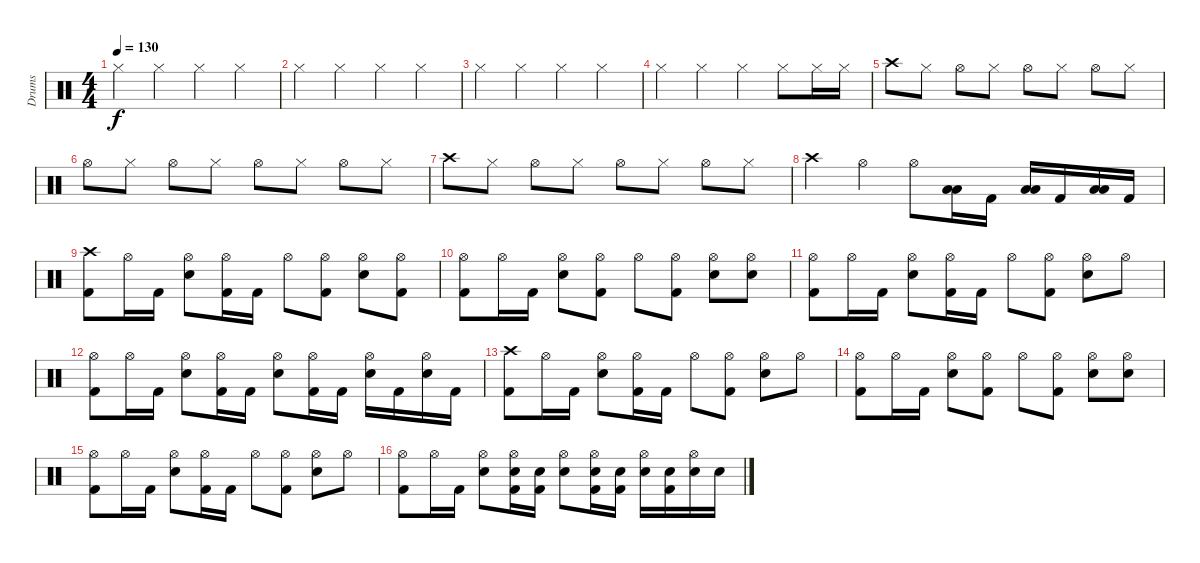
\track ("Drums" "Drums") {instrument percussion}
\staff {score}
\articulation defaults
\ts (4 4)
\tempo 130
\clef neutral
\ks c "Hi-Hat (closed)".4{dy f} "Hi-Hat (closed)".4 "Hi-Hat (closed)".4 "Hi-Hat (closed)".4
|
"Hi-Hat (closed)".4 "Hi-Hat (closed)".4 "Hi-Hat (closed)".4 "Hi-Hat (closed)".4 |
"Hi-Hat (closed)".4 "Hi-Hat (closed)".4 "Hi-Hat (closed)".4 "Hi-Hat (closed)".4 |
"Hi-Hat (closed)".4 "Hi-Hat (closed)".4 "Hi-Hat (closed)".4 "Hi-Hat (closed)".8 "Hi-Hat (closed)".16 "Hi-Hat (closed)".16 |
"Crash high (hit)".8 "Hi-Hat (closed)".8 "Hi-Hat (open)".8 "Hi-Hat (closed)".8 "Hi-Hat (open)".8 "Hi-Hat (closed)".8 "Hi-Hat (open)".8 "Hi-Hat (closed)".8 |
"Hi-Hat (open)".8 "Hi-Hat (closed)".8 "Hi-Hat (open)".8 "Hi-Hat (closed)".8 "Hi-Hat (open)".8 "Hi-Hat (closed)".8 "Hi-Hat (open)".8 "Hi-Hat (closed)".8 |
"Crash high (hit)".8 "Hi-Hat (closed)".8 "Hi-Hat (open)".8 "Hi-Hat (closed)".8 "Hi-Hat (open)".8 "Hi-Hat (closed)".8 "Hi-Hat (open)".8 "Hi-Hat (closed)".8 |
"Crash high (hit)".4 "Hi-Hat (open)".4 "Hi-Hat (open)".8 ("Low Tom (hit)" "Low Floor Tom (hit)").16 "Kick (hit) 2".16 ("Low Tom (hit)" "Low Floor Tom (hit)").16 "Kick (hit) 2".16 ("Low Tom (hit)" "Low Floor Tom (hit)").16 "Kick (hit) 2".16 |
("Crash high (hit)" "Kick (hit) 2").8 "Hi-Hat (open)".16 "Kick (hit) 2".16 ("Hi-Hat (open)" "Electric Snare (hit)").8 ("Hi-Hat (open)" "Kick (hit) 2").16 "Kick (hit) 2".16 "Hi-Hat (open)".8 ("Hi-Hat (open)" "Kick (hit) 2").8 ("Hi-Hat (open)" "Electric Snare (hit)").8 ("Hi-Hat (open)" "Kick (hit) 2").8 |
("Hi-Hat (open)" "Kick (hit) 2").8 "Hi-Hat (open)".16 "Kick (hit) 2".16 ("Hi-Hat (open)" "Electric Snare (hit)").8 ("Hi-Hat (open)" "Kick (hit) 2").8 "Hi-Hat (open)".8 ("Hi-Hat (open)" "Kick (hit) 2").8 ("Hi-Hat (open)" "Electric Snare (hit)").8 ("Hi-Hat (open)" "Electric Snare (hit)").8 |
("Hi-Hat (open)" "Kick (hit) 2").8 "Hi-Hat (open)".16 "Kick (hit) 2".16 ("Hi-Hat (open)" "Electric Snare (hit)").8 ("Hi-Hat (open)" "Kick (hit) 2").16 "Kick (hit) 2".16 "Hi-Hat (open)".8 ("Hi-Hat (open)" "Kick (hit) 2").8 ("Hi-Hat (open)" "Electric Snare (hit)").8 "Hi-Hat (open)".8 |
("Hi-Hat (open)" "Kick (hit) 2").8 "Hi-Hat (open)".16 "Kick (hit) 2".16 ("Hi-Hat (open)" "Electric Snare (hit)").8 ("Hi-Hat (open)" "Kick (hit) 2").16 "Kick (hit) 2".16 ("Hi-Hat (open)" "Electric Snare (hit)").8 ("Hi-Hat (open)" "Kick (hit) 2").16 "Kick (hit) 2".16 ("Hi-Hat (open)" "Electric Snare (hit)").16 "Kick (hit) 2".16 ("Hi-Hat (open)" "Electric Snare (hit)").16 "Kick (hit) 2".16 |
("Crash high (hit)" "Kick (hit) 2").8 "Hi-Hat (open)".16 "Kick (hit) 2".16 ("Hi-Hat (open)" "Electric Snare (hit)").8 ("Hi-Hat (open)" "Kick (hit) 2").16 "Kick (hit) 2".16 "Hi-Hat (open)".8 ("Hi-Hat (open)" "Kick (hit) 2").8 ("Hi-Hat (open)" "Electric Snare (hit)").8 "Hi-Hat (open)".8 |
("Hi-Hat (open)" "Kick (hit) 2").8 "Hi-Hat (open)".16 "Kick (hit) 2".16 ("Hi-Hat (open)" "Electric Snare (hit)").8 ("Hi-Hat (open)" "Kick (hit) 2").8 "Hi-Hat (open)".8 ("Hi-Hat (open)" "Kick (hit) 2").8 ("Hi-Hat (open)" "Electric Snare (hit)").8 ("Hi-Hat (open)" "Electric Snare (hit)").8 |
("Hi-Hat (open)" "Kick (hit) 2").8 "Hi-Hat (open)".16 "Kick (hit) 2".16 ("Hi-Hat (open)" "Electric Snare (hit)").8 ("Hi-Hat (open)" "Kick (hit) 2").16 "Kick (hit) 2".16 "Hi-Hat (open)".8 ("Hi-Hat (open)" "Kick (hit) 2").8 ("Hi-Hat (open)" "Electric Snare (hit)").8 "Hi-Hat (open)".8 |
("Hi-Hat (open)" "Kick (hit) 2").8 "Hi-Hat (open)".16 "Kick (hit) 2".16 ("Hi-Hat (open)" "Electric Snare (hit)").8 ("Hi-Hat (open)" "Electric Snare (hit)" "Kick (hit) 2").16 ("Electric Snare (hit)" "Kick (hit) 2").16 ("Hi-Hat (open)" "Electric Snare (hit)").8 ("Hi-Hat (open)" "Electric Snare (hit)" "Kick (hit) 2").16 ("Electric Snare (hit)" "Kick (hit) 2").16 ("Hi-Hat (open)" "Electric Snare (hit)").16 ("Electric Snare (hit)" "Kick (hit) 2").16 ("Hi-Hat (open)" "Electric Snare (hit)").16 "Electric Snare (hit)".16
